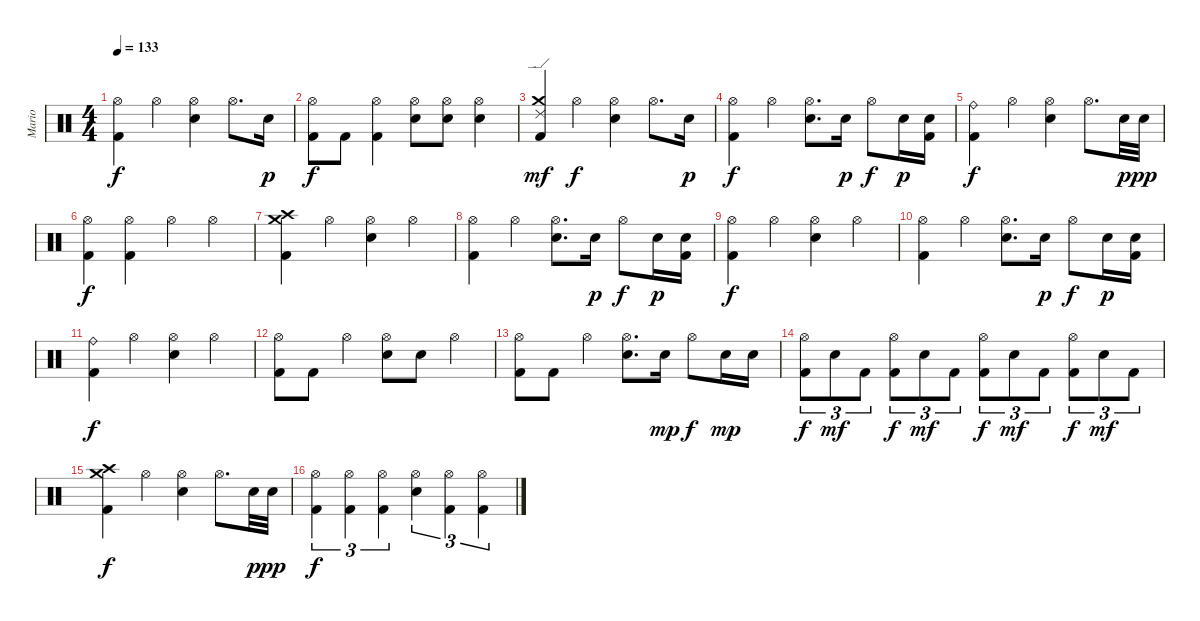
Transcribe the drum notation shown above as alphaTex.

\track ("Mario" "Mario") {instrument percussion}
\staff {score}
\articulation defaults
\ts (4 4)
\tempo 133
\clef neutral
\ks c
("Hi-Hat (open)" "Kick (hit) 2").4{dy f} "Hi-Hat (open)".4 ("Hi-Hat (open)" "Electric Snare (hit)").4 "Hi-Hat (open)".8{d} "Electric Snare (hit)".16{dy p} |
("Hi-Hat (open)" "Kick (hit) 2").8{dy f} "Kick (hit) 2".8 ("Hi-Hat (open)" "Kick (hit) 2").4 ("Hi-Hat (open)" "Electric Snare (hit)").8 ("Hi-Hat (open)" "Electric Snare (hit)").8 ("Hi-Hat (open)" "Electric Snare (hit)").4 |
("Crash medium (hit)" "Ride (edge) 2" "Kick (hit) 2").4{dy mf} "Hi-Hat (open)".4{dy f} ("Hi-Hat (open)" "Electric Snare (hit)").4 "Hi-Hat (open)".8{d} "Electric Snare (hit)".16{dy p} |
("Hi-Hat (open)" "Kick (hit) 2").4{dy f} "Hi-Hat (open)".4 ("Hi-Hat (open)" "Electric Snare (hit)").8{d} "Electric Snare (hit)".16{dy p} "Hi-Hat (open)".8{dy f} "Electric Snare (hit)".16{dy p} ("Electric Snare (hit)" "Kick (hit) 2").16 |
("Ride (bell)" "Kick (hit) 2").4{dy f} "Hi-Hat (open)".4 ("Hi-Hat (open)" "Electric Snare (hit)").4 "Hi-Hat (open)".8{d} "Electric Snare (hit)".32{dy p} "Electric Snare (hit)".32{dy pp} |
("Hi-Hat (open)" "Kick (hit) 2").4{dy f} ("Hi-Hat (open)" "Kick (hit) 2").4 "Hi-Hat (open)".4 "Hi-Hat (open)".4 |
("Crash medium (hit)" "Crash high (hit)" "Kick (hit) 2").4 "Hi-Hat (open)".4 ("Hi-Hat (open)" "Electric Snare (hit)").4 "Hi-Hat (open)".4 |
("Hi-Hat (open)" "Kick (hit) 2").4 "Hi-Hat (open)".4 ("Hi-Hat (open)" "Electric Snare (hit)").8{d} "Electric Snare (hit)".16{dy p} "Hi-Hat (open)".8{dy f} "Electric Snare (hit)".16{dy p} ("Electric Snare (hit)" "Kick (hit) 2").16 |
("Hi-Hat (open)" "Kick (hit) 2").4{dy f} "Hi-Hat (open)".4 ("Hi-Hat (open)" "Electric Snare (hit)").4 "Hi-Hat (open)".4 |
("Hi-Hat (open)" "Kick (hit) 2").4 "Hi-Hat (open)".4 ("Hi-Hat (open)" "Electric Snare (hit)").8{d} "Electric Snare (hit)".16{dy p} "Hi-Hat (open)".8{dy f} "Electric Snare (hit)".16{dy p} ("Electric Snare (hit)" "Kick (hit) 2").16 |
("Ride (bell)" "Kick (hit) 2").4{dy f} "Hi-Hat (open)".4 ("Hi-Hat (open)" "Electric Snare (hit)").4 "Hi-Hat (open)".4 |
("Hi-Hat (open)" "Kick (hit) 2").8 "Kick (hit) 2".8 "Hi-Hat (open)".4 ("Hi-Hat (open)" "Electric Snare (hit)").8 "Electric Snare (hit)".8 "Hi-Hat (open)".4 |
("Hi-Hat (open)" "Kick (hit) 2").8 "Kick (hit) 2".8 "Hi-Hat (open)".4 ("Hi-Hat (open)" "Electric Snare (hit)").8{d} "Electric Snare (hit)".16{dy mp} "Hi-Hat (open)".8{dy f} "Electric Snare (hit)".16{dy mp} "Electric Snare (hit)".16 |
("Hi-Hat (open)" "Kick (hit) 2").8{tu (3 2) dy f} "Electric Snare (hit)".8{tu (3 2) dy mf} "Kick (hit) 2".8{tu (3 2)} ("Hi-Hat (open)" "Kick (hit) 2").8{tu (3 2) dy f} "Electric Snare (hit)".8{tu (3 2) dy mf} "Kick (hit) 2".8{tu (3 2)} ("Hi-Hat (open)" "Kick (hit) 2").8{tu (3 2) dy f} "Electric Snare (hit)".8{tu (3 2) dy mf} "Kick (hit) 2".8{tu (3 2)} ("Hi-Hat (open)" "Kick (hit) 2").8{tu (3 2) dy f} "Electric Snare (hit)".8{tu (3 2) dy mf} "Kick (hit) 2".8{tu (3 2)} |
("Crash medium (hit)" "Crash high (hit)" "Kick (hit) 2").4{dy f} "Hi-Hat (open)".4 ("Hi-Hat (open)" "Electric Snare (hit)").4 "Hi-Hat (open)".8{d} "Electric Snare (hit)".32{dy p} "Electric Snare (hit)".32{dy pp} |
("Hi-Hat (open)" "Kick (hit) 2").4{tu (3 2) dy f} ("Hi-Hat (open)" "Kick (hit) 2").4{tu (3 2)} ("Hi-Hat (open)" "Kick (hit) 2").4{tu (3 2)} ("Hi-Hat (open)" "Electric Snare (hit)").4{tu (3 2)} ("Hi-Hat (open)" "Kick (hit) 2").4{tu (3 2)} ("Hi-Hat (open)" "Kick (hit) 2").4{tu (3 2)}
